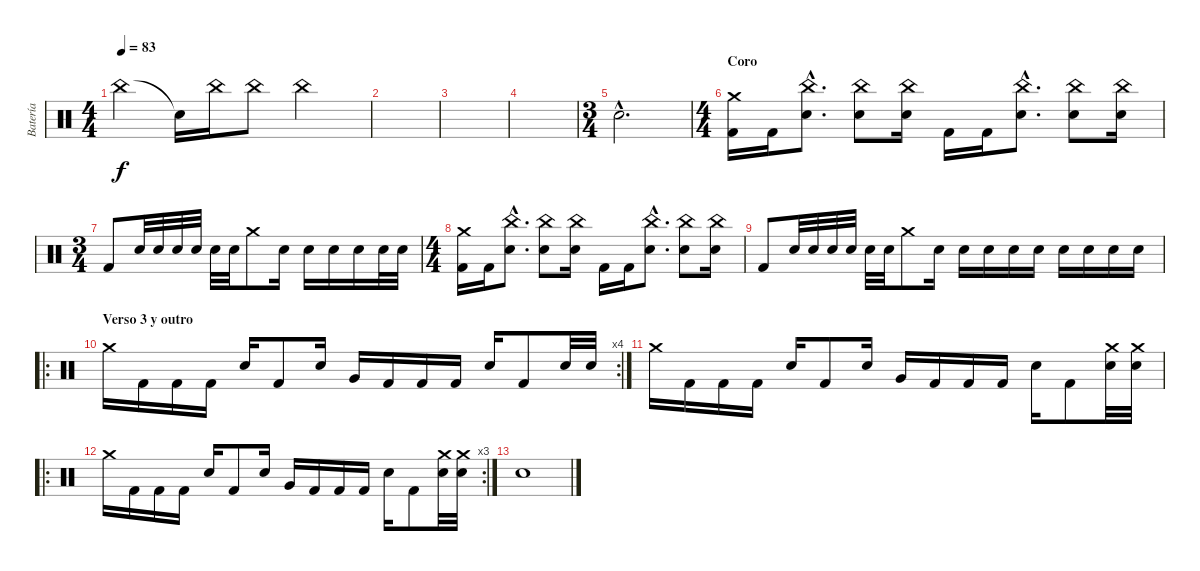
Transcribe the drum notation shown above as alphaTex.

\track ("Batería" "Batería") {instrument percussion}
\staff {score}
\articulation defaults
\ts (4 4)
\tempo 83
\clef neutral
\ks c "China (hit)".4{dy f} "Snare (hit)"{t}.16 "China (hit)".16 "China (hit)".8 "China (hit)".2
|
|
|
|
\ts (3 4)
"Electric Snare (hit)"{hac}.2{d} |
\ts (4 4)
\section ("" "Coro")
("Crash medium (hit)" "Kick (hit) 2").16 "Kick (hit) 2".16 ("China (hit)"{hac} "Electric Snare (hit)"{hac}).8{d} ("China (hit)" "Electric Snare (hit)").8 ("China (hit)" "Electric Snare (hit)").16 "Kick (hit) 2".16 "Kick (hit) 2".16 ("China (hit)"{hac} "Electric Snare (hit)"{hac}).8{d} ("China (hit)" "Electric Snare (hit)").8 ("China (hit)" "Electric Snare (hit)").16 |
\ts (3 4)
"Kick (hit) 2".8 "Electric Snare (hit)".32 "Electric Snare (hit)".32 "Electric Snare (hit)".32 "Electric Snare (hit)".32 "Electric Snare (hit)".32 "Electric Snare (hit)".32 "Crash medium (hit)".8 "Electric Snare (hit)".16 "Electric Snare (hit)".16 "Electric Snare (hit)".16 "Electric Snare (hit)".16 "Electric Snare (hit)".32 "Electric Snare (hit)".32 |
\ts (4 4)
("Crash medium (hit)" "Kick (hit) 2").16 "Kick (hit) 2".16 ("China (hit)"{hac} "Electric Snare (hit)"{hac}).8{d} ("China (hit)" "Electric Snare (hit)").8 ("China (hit)" "Electric Snare (hit)").16 "Kick (hit) 2".16 "Kick (hit) 2".16 ("China (hit)"{hac} "Electric Snare (hit)"{hac}).8{d} ("China (hit)" "Electric Snare (hit)").8 ("China (hit)" "Electric Snare (hit)").16 |
"Kick (hit) 2".8 "Electric Snare (hit)".32 "Electric Snare (hit)".32 "Electric Snare (hit)".32 "Electric Snare (hit)".32 "Electric Snare (hit)".32 "Electric Snare (hit)".32 "Crash medium (hit)".8 "Electric Snare (hit)".16 "Electric Snare (hit)".16 "Electric Snare (hit)".16 "Electric Snare (hit)".16 "Electric Snare (hit)".16 "Electric Snare (hit)".16 "Electric Snare (hit)".16 "Electric Snare (hit)".16 "Electric Snare (hit)".16 |
\ro
\rc 4
\section ("" "Verso 3 y outro")
"Crash medium (hit)".16 "Kick (hit) 2".16 "Kick (hit) 2".16 "Kick (hit) 2".16 "Electric Snare (hit)".16 "Kick (hit) 2".8 "Electric Snare (hit)".16 "Very Low Tom (hit)".16 "Kick (hit) 2".16 "Kick (hit) 2".16 "Kick (hit) 2".16 "Electric Snare (hit)".16 "Kick (hit) 2".8 "Electric Snare (hit)".32 "Electric Snare (hit)".32 |
"Crash medium (hit)".16 "Kick (hit) 2".16 "Kick (hit) 2".16 "Kick (hit) 2".16 "Electric Snare (hit)".16 "Kick (hit) 2".8 "Electric Snare (hit)".16 "Very Low Tom (hit)".16 "Kick (hit) 2".16 "Kick (hit) 2".16 "Kick (hit) 2".16 "Electric Snare (hit)".16 "Kick (hit) 2".8 ("Crash medium (hit)" "Electric Snare (hit)").32 ("Crash medium (hit)" "Electric Snare (hit)").32 |
\ro
\rc 3 "Crash medium (hit)".16 "Kick (hit) 2".16 "Kick (hit) 2".16 "Kick (hit) 2".16 "Electric Snare (hit)".16 "Kick (hit) 2".8 "Electric Snare (hit)".16 "Very Low Tom (hit)".16 "Kick (hit) 2".16 "Kick (hit) 2".16 "Kick (hit) 2".16 "Electric Snare (hit)".16 "Kick (hit) 2".8
("Crash medium (hit)" "Electric Snare (hit)").32 ("Crash medium (hit)" "Electric Snare (hit)").32 |
"Electric Snare (hit)".1
